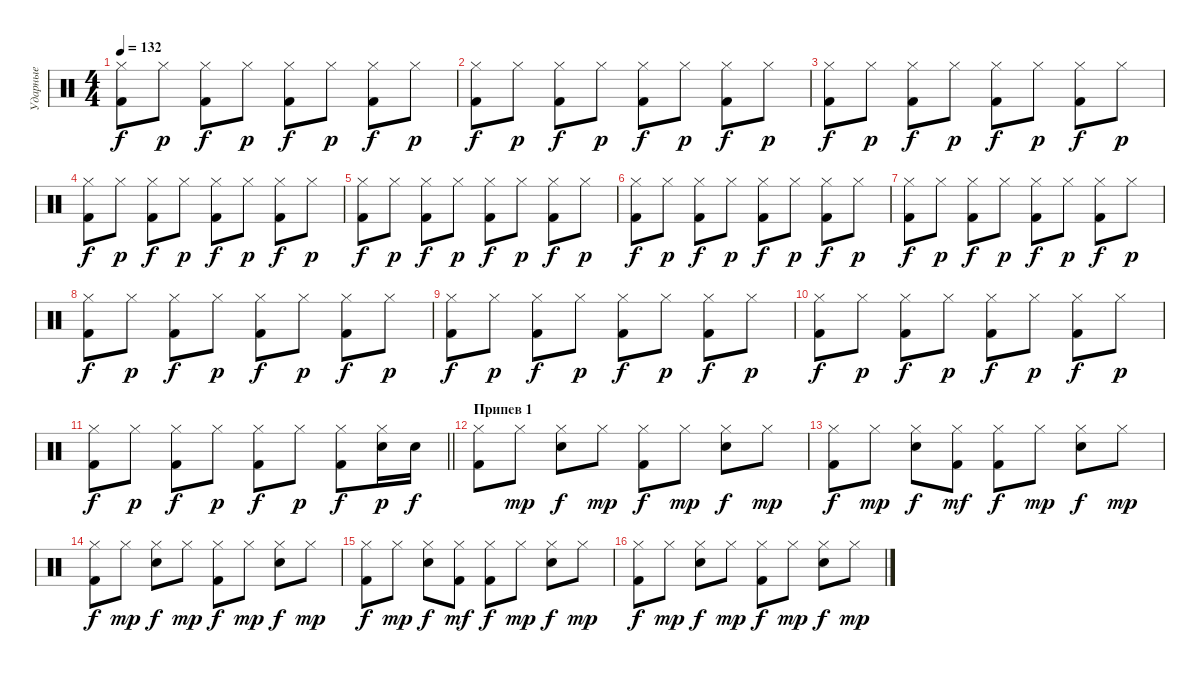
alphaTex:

\track ("Ударные" "Ударные") {instrument percussion}
\staff {score}
\articulation defaults
\ts (4 4)
\tempo 132
\clef neutral
\ks c
("Hi-Hat (closed)" "Kick (hit) 2").8{dy f} "Hi-Hat (closed)".8{dy p} ("Hi-Hat (closed)" "Kick (hit) 2").8{dy f} "Hi-Hat (closed)".8{dy p} ("Hi-Hat (closed)" "Kick (hit) 2").8{dy f} "Hi-Hat (closed)".8{dy p} ("Hi-Hat (closed)" "Kick (hit) 2").8{dy f} "Hi-Hat (closed)".8{dy p} |
("Hi-Hat (closed)" "Kick (hit) 2").8{dy f} "Hi-Hat (closed)".8{dy p} ("Hi-Hat (closed)" "Kick (hit) 2").8{dy f} "Hi-Hat (closed)".8{dy p} ("Hi-Hat (closed)" "Kick (hit) 2").8{dy f} "Hi-Hat (closed)".8{dy p} ("Hi-Hat (closed)" "Kick (hit) 2").8{dy f} "Hi-Hat (closed)".8{dy p} |
("Hi-Hat (closed)" "Kick (hit) 2").8{dy f} "Hi-Hat (closed)".8{dy p} ("Hi-Hat (closed)" "Kick (hit) 2").8{dy f} "Hi-Hat (closed)".8{dy p} ("Hi-Hat (closed)" "Kick (hit) 2").8{dy f} "Hi-Hat (closed)".8{dy p} ("Hi-Hat (closed)" "Kick (hit) 2").8{dy f} "Hi-Hat (closed)".8{dy p} |
("Hi-Hat (closed)" "Kick (hit) 2").8{dy f} "Hi-Hat (closed)".8{dy p} ("Hi-Hat (closed)" "Kick (hit) 2").8{dy f} "Hi-Hat (closed)".8{dy p} ("Hi-Hat (closed)" "Kick (hit) 2").8{dy f} "Hi-Hat (closed)".8{dy p} ("Hi-Hat (closed)" "Kick (hit) 2").8{dy f} "Hi-Hat (closed)".8{dy p} |
("Hi-Hat (closed)" "Kick (hit) 2").8{dy f} "Hi-Hat (closed)".8{dy p} ("Hi-Hat (closed)" "Kick (hit) 2").8{dy f} "Hi-Hat (closed)".8{dy p} ("Hi-Hat (closed)" "Kick (hit) 2").8{dy f} "Hi-Hat (closed)".8{dy p} ("Hi-Hat (closed)" "Kick (hit) 2").8{dy f} "Hi-Hat (closed)".8{dy p} |
("Hi-Hat (closed)" "Kick (hit) 2").8{dy f} "Hi-Hat (closed)".8{dy p} ("Hi-Hat (closed)" "Kick (hit) 2").8{dy f} "Hi-Hat (closed)".8{dy p} ("Hi-Hat (closed)" "Kick (hit) 2").8{dy f} "Hi-Hat (closed)".8{dy p} ("Hi-Hat (closed)" "Kick (hit) 2").8{dy f} "Hi-Hat (closed)".8{dy p} |
("Hi-Hat (closed)" "Kick (hit) 2").8{dy f} "Hi-Hat (closed)".8{dy p} ("Hi-Hat (closed)" "Kick (hit) 2").8{dy f} "Hi-Hat (closed)".8{dy p} ("Hi-Hat (closed)" "Kick (hit) 2").8{dy f} "Hi-Hat (closed)".8{dy p} ("Hi-Hat (closed)" "Kick (hit) 2").8{dy f} "Hi-Hat (closed)".8{dy p} |
("Hi-Hat (closed)" "Kick (hit) 2").8{dy f} "Hi-Hat (closed)".8{dy p} ("Hi-Hat (closed)" "Kick (hit) 2").8{dy f} "Hi-Hat (closed)".8{dy p} ("Hi-Hat (closed)" "Kick (hit) 2").8{dy f} "Hi-Hat (closed)".8{dy p} ("Hi-Hat (closed)" "Kick (hit) 2").8{dy f} "Hi-Hat (closed)".8{dy p} |
("Hi-Hat (closed)" "Kick (hit) 2").8{dy f} "Hi-Hat (closed)".8{dy p} ("Hi-Hat (closed)" "Kick (hit) 2").8{dy f} "Hi-Hat (closed)".8{dy p} ("Hi-Hat (closed)" "Kick (hit) 2").8{dy f} "Hi-Hat (closed)".8{dy p} ("Hi-Hat (closed)" "Kick (hit) 2").8{dy f} "Hi-Hat (closed)".8{dy p} |
("Hi-Hat (closed)" "Kick (hit) 2").8{dy f} "Hi-Hat (closed)".8{dy p} ("Hi-Hat (closed)" "Kick (hit) 2").8{dy f} "Hi-Hat (closed)".8{dy p} ("Hi-Hat (closed)" "Kick (hit) 2").8{dy f} "Hi-Hat (closed)".8{dy p} ("Hi-Hat (closed)" "Kick (hit) 2").8{dy f} "Hi-Hat (closed)".8{dy p} |
\barLineRight lightlight
("Hi-Hat (closed)" "Kick (hit) 2").8{dy f} "Hi-Hat (closed)".8{dy p} ("Hi-Hat (closed)" "Kick (hit) 2").8{dy f} "Hi-Hat (closed)".8{dy p} ("Hi-Hat (closed)" "Kick (hit) 2").8{dy f} "Hi-Hat (closed)".8{dy p} ("Hi-Hat (closed)" "Kick (hit) 2").8{dy f} ("Hi-Hat (closed)" "Snare (hit) 2").16{dy p} "Snare (hit) 2".16{dy f} |
\section ("" "Припев 1")
("Hi-Hat (closed)" "Kick (hit) 2").8 "Hi-Hat (closed)".8{dy mp} ("Hi-Hat (closed)" "Snare (hit) 2").8{dy f} "Hi-Hat (closed)".8{dy mp} ("Hi-Hat (closed)" "Kick (hit) 2").8{dy f} "Hi-Hat (closed)".8{dy mp} ("Hi-Hat (closed)" "Snare (hit) 2").8{dy f} "Hi-Hat (closed)".8{dy mp} |
("Hi-Hat (closed)" "Kick (hit) 2").8{dy f} "Hi-Hat (closed)".8{dy mp} ("Hi-Hat (closed)" "Snare (hit) 2").8{dy f} ("Hi-Hat (closed)" "Kick (hit) 2").8{dy mf} ("Hi-Hat (closed)" "Kick (hit) 2").8{dy f} "Hi-Hat (closed)".8{dy mp} ("Hi-Hat (closed)" "Snare (hit) 2").8{dy f} "Hi-Hat (closed)".8{dy mp} |
("Hi-Hat (closed)" "Kick (hit) 2").8{dy f} "Hi-Hat (closed)".8{dy mp} ("Hi-Hat (closed)" "Snare (hit) 2").8{dy f} "Hi-Hat (closed)".8{dy mp} ("Hi-Hat (closed)" "Kick (hit) 2").8{dy f} "Hi-Hat (closed)".8{dy mp} ("Hi-Hat (closed)" "Snare (hit) 2").8{dy f} "Hi-Hat (closed)".8{dy mp} |
("Hi-Hat (closed)" "Kick (hit) 2").8{dy f} "Hi-Hat (closed)".8{dy mp} ("Hi-Hat (closed)" "Snare (hit) 2").8{dy f} ("Hi-Hat (closed)" "Kick (hit) 2").8{dy mf} ("Hi-Hat (closed)" "Kick (hit) 2").8{dy f} "Hi-Hat (closed)".8{dy mp} ("Hi-Hat (closed)" "Snare (hit) 2").8{dy f} "Hi-Hat (closed)".8{dy mp} |
("Hi-Hat (closed)" "Kick (hit) 2").8{dy f} "Hi-Hat (closed)".8{dy mp} ("Hi-Hat (closed)" "Snare (hit) 2").8{dy f} "Hi-Hat (closed)".8{dy mp} ("Hi-Hat (closed)" "Kick (hit) 2").8{dy f} "Hi-Hat (closed)".8{dy mp} ("Hi-Hat (closed)" "Snare (hit) 2").8{dy f} "Hi-Hat (closed)".8{dy mp}
